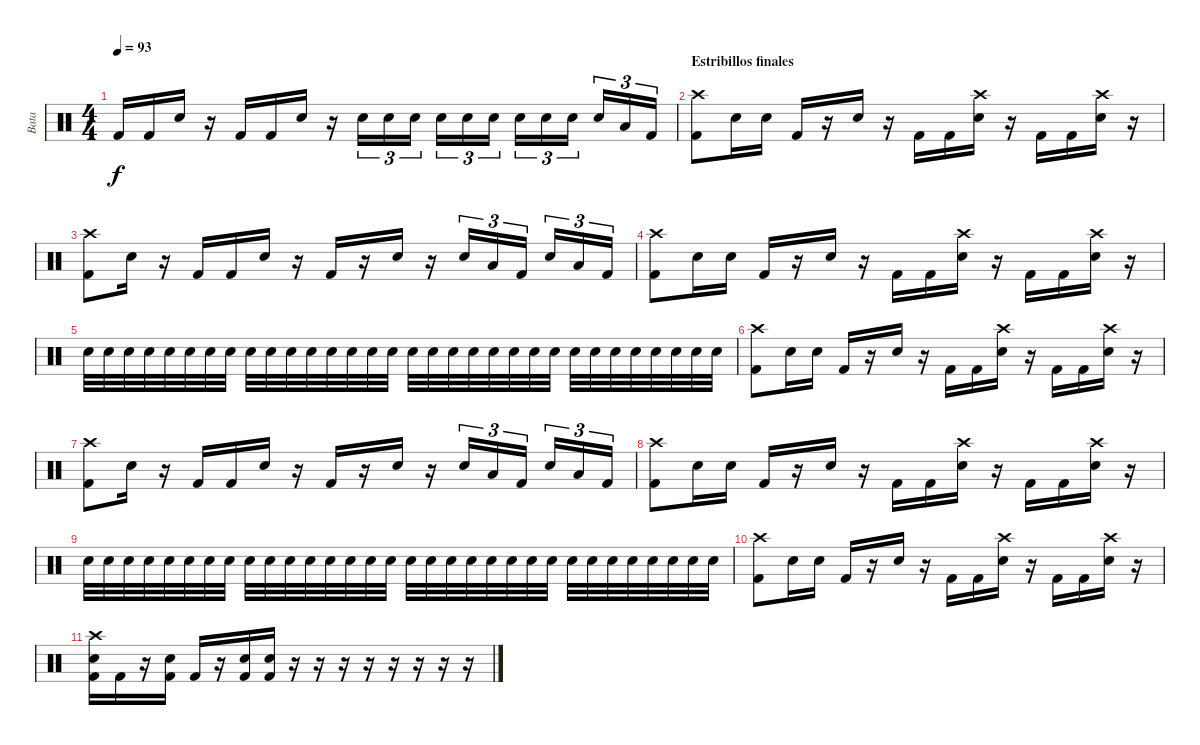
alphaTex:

\track ("Bata" "Bata") {instrument percussion}
\staff {score}
\articulation defaults
\ts (4 4)
\tempo 93
\clef neutral
\ks c "Kick (hit) 2".16{dy f} "Kick (hit) 2".16 "Snare (hit) 2".16
r.16 "Kick (hit) 2".16 "Kick (hit) 2".16 "Snare (hit) 2".16 r.16 "Snare (hit) 2".16{tu (3 2)} "Snare (hit) 2".16{tu (3 2)} "Snare (hit) 2".16{tu (3 2)} "Snare (hit) 2".16{tu (3 2)} "Snare (hit) 2".16{tu (3 2)} "Snare (hit) 2".16{tu (3 2)} "Snare (hit) 2".16{tu (3 2)} "Snare (hit) 2".16{tu (3 2)} "Snare (hit) 2".16{tu (3 2)} "Snare (hit) 2".16{tu (3 2)} "Low Floor Tom (hit)".16{tu (3 2)} "Kick (hit) 2".16{tu (3 2)} |
\section ("" "Estribillos finales")
("Crash high (hit)" "Kick (hit) 2").8 "Snare (hit) 2".16 "Snare (hit) 2".16 "Kick (hit) 2".16 r.16 "Snare (hit) 2".16 r.16 "Kick (hit) 2".16 "Kick (hit) 2".16 ("Crash high (hit)" "Snare (hit) 2").16 r.16 "Kick (hit) 2".16 "Kick (hit) 2".16 ("Crash high (hit)" "Snare (hit) 2").16 r.16 |
("Crash high (hit)" "Kick (hit) 2").8 "Snare (hit) 2".16 r.16 "Kick (hit) 2".16 "Kick (hit) 2".16 "Snare (hit) 2".16 r.16 "Kick (hit) 2".16 r.16 "Snare (hit) 2".16 r.16 "Snare (hit) 2".16{tu (3 2)} "Low Floor Tom (hit)".16{tu (3 2)} "Kick (hit) 2".16{tu (3 2)} "Snare (hit) 2".16{tu (3 2)} "Low Floor Tom (hit)".16{tu (3 2)} "Kick (hit) 2".16{tu (3 2)} |
("Crash high (hit)" "Kick (hit) 2").8 "Snare (hit) 2".16 "Snare (hit) 2".16 "Kick (hit) 2".16 r.16 "Snare (hit) 2".16 r.16 "Kick (hit) 2".16 "Kick (hit) 2".16 ("Crash high (hit)" "Snare (hit) 2").16 r.16 "Kick (hit) 2".16 "Kick (hit) 2".16 ("Crash high (hit)" "Snare (hit) 2").16 r.16 |
"Snare (hit) 2".32 "Snare (hit) 2".32 "Snare (hit) 2".32 "Snare (hit) 2".32 "Snare (hit) 2".32 "Snare (hit) 2".32 "Snare (hit) 2".32 "Snare (hit) 2".32 "Snare (hit) 2".32 "Snare (hit) 2".32 "Snare (hit) 2".32 "Snare (hit) 2".32 "Snare (hit) 2".32 "Snare (hit) 2".32 "Snare (hit) 2".32 "Snare (hit) 2".32 "Snare (hit) 2".32 "Snare (hit) 2".32 "Snare (hit) 2".32 "Snare (hit) 2".32 "Snare (hit) 2".32 "Snare (hit) 2".32 "Snare (hit) 2".32 "Snare (hit) 2".32 "Snare (hit) 2".32 "Snare (hit) 2".32 "Snare (hit) 2".32 "Snare (hit) 2".32 "Snare (hit) 2".32 "Snare (hit) 2".32 "Snare (hit) 2".32 "Snare (hit) 2".32 |
("Crash high (hit)" "Kick (hit) 2").8 "Snare (hit) 2".16 "Snare (hit) 2".16 "Kick (hit) 2".16 r.16 "Snare (hit) 2".16 r.16 "Kick (hit) 2".16 "Kick (hit) 2".16 ("Crash high (hit)" "Snare (hit) 2").16 r.16 "Kick (hit) 2".16 "Kick (hit) 2".16 ("Crash high (hit)" "Snare (hit) 2").16 r.16 |
("Crash high (hit)" "Kick (hit) 2").8 "Snare (hit) 2".16 r.16 "Kick (hit) 2".16 "Kick (hit) 2".16 "Snare (hit) 2".16 r.16 "Kick (hit) 2".16 r.16 "Snare (hit) 2".16 r.16 "Snare (hit) 2".16{tu (3 2)} "Low Floor Tom (hit)".16{tu (3 2)} "Kick (hit) 2".16{tu (3 2)} "Snare (hit) 2".16{tu (3 2)} "Low Floor Tom (hit)".16{tu (3 2)} "Kick (hit) 2".16{tu (3 2)} |
("Crash high (hit)" "Kick (hit) 2").8 "Snare (hit) 2".16 "Snare (hit) 2".16 "Kick (hit) 2".16 r.16 "Snare (hit) 2".16 r.16 "Kick (hit) 2".16 "Kick (hit) 2".16 ("Crash high (hit)" "Snare (hit) 2").16 r.16 "Kick (hit) 2".16 "Kick (hit) 2".16 ("Crash high (hit)" "Snare (hit) 2").16 r.16 |
"Snare (hit) 2".32 "Snare (hit) 2".32 "Snare (hit) 2".32 "Snare (hit) 2".32 "Snare (hit) 2".32 "Snare (hit) 2".32 "Snare (hit) 2".32 "Snare (hit) 2".32 "Snare (hit) 2".32 "Snare (hit) 2".32 "Snare (hit) 2".32 "Snare (hit) 2".32 "Snare (hit) 2".32 "Snare (hit) 2".32 "Snare (hit) 2".32 "Snare (hit) 2".32 "Snare (hit) 2".32 "Snare (hit) 2".32 "Snare (hit) 2".32 "Snare (hit) 2".32 "Snare (hit) 2".32 "Snare (hit) 2".32 "Snare (hit) 2".32 "Snare (hit) 2".32 "Snare (hit) 2".32 "Snare (hit) 2".32 "Snare (hit) 2".32 "Snare (hit) 2".32 "Snare (hit) 2".32 "Snare (hit) 2".32 "Snare (hit) 2".32 "Snare (hit) 2".32 |
("Crash high (hit)" "Kick (hit) 2").8 "Snare (hit) 2".16 "Snare (hit) 2".16 "Kick (hit) 2".16 r.16 "Snare (hit) 2".16 r.16 "Kick (hit) 2".16 "Kick (hit) 2".16 ("Crash high (hit)" "Snare (hit) 2").16 r.16 "Kick (hit) 2".16 "Kick (hit) 2".16 ("Crash high (hit)" "Snare (hit) 2").16 r.16 |
("Crash high (hit)" "Snare (hit) 2" "Kick (hit) 2").16 "Kick (hit) 2".16 r.16 ("Snare (hit) 2" "Kick (hit) 2").16 "Kick (hit) 2".16 r.16 ("Snare (hit) 2" "Kick (hit) 2").16 ("Snare (hit) 2" "Kick (hit) 2").16 r.16 r.16 r.16 r.16 r.16 r.16 r.16 r.16
